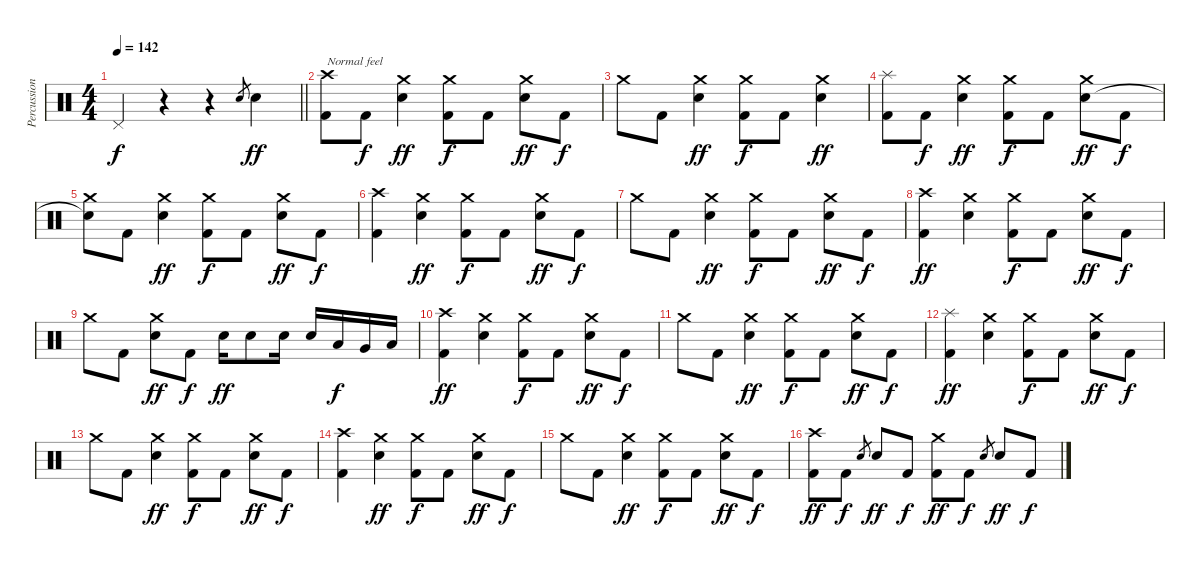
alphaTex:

\track ("Percussion" "Percussion") {instrument percussion}
\staff {score}
\articulation defaults
\ts (4 4)
\tempo 142
\clef neutral
\barLineRight lightlight
\ks c "Pedal Hi-Hat (hit)".4{dy f}
r.4 r.4 "Snare (hit) 2".8{gr} "Snare (hit) 2".4{dy ff} |
("Crash high (hit)" "Kick (hit) 2").8{txt "Normal feel"} "Kick (hit) 2".8{dy f} ("Crash medium (hit)" "Snare (hit) 2").4{dy ff} ("Crash medium (hit)" "Kick (hit) 2").8{dy f} "Kick (hit) 2".8 ("Crash medium (hit)" "Snare (hit) 2").8{dy ff} "Kick (hit) 2".8{dy f} |
"Crash medium (hit)".8 "Kick (hit) 2".8 ("Crash medium (hit)" "Snare (hit) 2").4{dy ff} ("Crash medium (hit)" "Kick (hit) 2").8{dy f} "Kick (hit) 2".8 ("Crash medium (hit)" "Snare (hit) 2").4{dy ff} |
("Splash (hit)" "Kick (hit) 2").8 "Kick (hit) 2".8{dy f} ("Crash medium (hit)" "Snare (hit) 2").4{dy ff} ("Crash medium (hit)" "Kick (hit) 2").8{dy f} "Kick (hit) 2".8 ("Crash medium (hit)" "Snare (hit) 2").8{dy ff} "Kick (hit) 2".8{dy f} |
("Crash medium (hit)" "Snare (hit)"{t}).8 "Kick (hit) 2".8 ("Crash medium (hit)" "Snare (hit) 2").4{dy ff} ("Crash medium (hit)" "Kick (hit) 2").8{dy f} "Kick (hit) 2".8 ("Crash medium (hit)" "Snare (hit) 2").8{dy ff} "Kick (hit) 2".8{dy f} |
("Crash high (hit)" "Kick (hit) 2").4 ("Crash medium (hit)" "Snare (hit) 2").4{dy ff} ("Crash medium (hit)" "Kick (hit) 2").8{dy f} "Kick (hit) 2".8 ("Crash medium (hit)" "Snare (hit) 2").8{dy ff} "Kick (hit) 2".8{dy f} |
"Crash medium (hit)".8 "Kick (hit) 2".8 ("Crash medium (hit)" "Snare (hit) 2").4{dy ff} ("Crash medium (hit)" "Kick (hit) 2").8{dy f} "Kick (hit) 2".8 ("Crash medium (hit)" "Snare (hit) 2").8{dy ff} "Kick (hit) 2".8{dy f} |
("Crash high (hit)" "Kick (hit) 2").4{dy ff} ("Crash medium (hit)" "Snare (hit) 2").4 ("Crash medium (hit)" "Kick (hit) 2").8{dy f} "Kick (hit) 2".8 ("Crash medium (hit)" "Snare (hit) 2").8{dy ff} "Kick (hit) 2".8{dy f} |
"Crash medium (hit)".8 "Kick (hit) 2".8 ("Crash medium (hit)" "Snare (hit) 2").8{dy ff} "Kick (hit) 2".8{dy f} "Snare (hit) 2".16{dy ff} "Snare (hit) 2".8 "Snare (hit) 2".16 "Snare (hit) 2".16 "Low Tom (hit)".16{dy f} "Very Low Tom (hit)".16 "Low Floor Tom (hit)".16 |
("Crash high (hit)" "Kick (hit) 2").4{dy ff} ("Crash medium (hit)" "Snare (hit) 2").4 ("Crash medium (hit)" "Kick (hit) 2").8{dy f} "Kick (hit) 2".8 ("Crash medium (hit)" "Snare (hit) 2").8{dy ff} "Kick (hit) 2".8{dy f} |
"Crash medium (hit)".8 "Kick (hit) 2".8 ("Crash medium (hit)" "Snare (hit) 2").4{dy ff} ("Crash medium (hit)" "Kick (hit) 2").8{dy f} "Kick (hit) 2".8 ("Crash medium (hit)" "Snare (hit) 2").8{dy ff} "Kick (hit) 2".8{dy f} |
("Splash (hit)" "Kick (hit) 2").4{dy ff} ("Crash medium (hit)" "Snare (hit) 2").4 ("Crash medium (hit)" "Kick (hit) 2").8{dy f} "Kick (hit) 2".8 ("Crash medium (hit)" "Snare (hit) 2").8{dy ff} "Kick (hit) 2".8{dy f} |
"Crash medium (hit)".8 "Kick (hit) 2".8 ("Crash medium (hit)" "Snare (hit) 2").4{dy ff} ("Crash medium (hit)" "Kick (hit) 2").8{dy f} "Kick (hit) 2".8 ("Crash medium (hit)" "Snare (hit) 2").8{dy ff} "Kick (hit) 2".8{dy f} |
("Crash high (hit)" "Kick (hit) 2").4 ("Crash medium (hit)" "Snare (hit) 2").4{dy ff} ("Crash medium (hit)" "Kick (hit) 2").8{dy f} "Kick (hit) 2".8 ("Crash medium (hit)" "Snare (hit) 2").8{dy ff} "Kick (hit) 2".8{dy f} |
"Crash medium (hit)".8 "Kick (hit) 2".8 ("Crash medium (hit)" "Snare (hit) 2").4{dy ff} ("Crash medium (hit)" "Kick (hit) 2").8{dy f} "Kick (hit) 2".8 ("Crash medium (hit)" "Snare (hit) 2").8{dy ff} "Kick (hit) 2".8{dy f} |
("Crash high (hit)" "Kick (hit) 2").8{dy ff} "Kick (hit) 2".8{dy f} "Snare (hit) 2".8{gr} "Snare (hit) 2".8{dy ff} "Kick (hit) 2".8{dy f} ("Crash medium (hit)" "Kick (hit) 2").8{dy ff} "Kick (hit) 2".8{dy f} "Snare (hit) 2".8{gr} "Snare (hit) 2".8{dy ff} "Kick (hit) 2".8{dy f}
